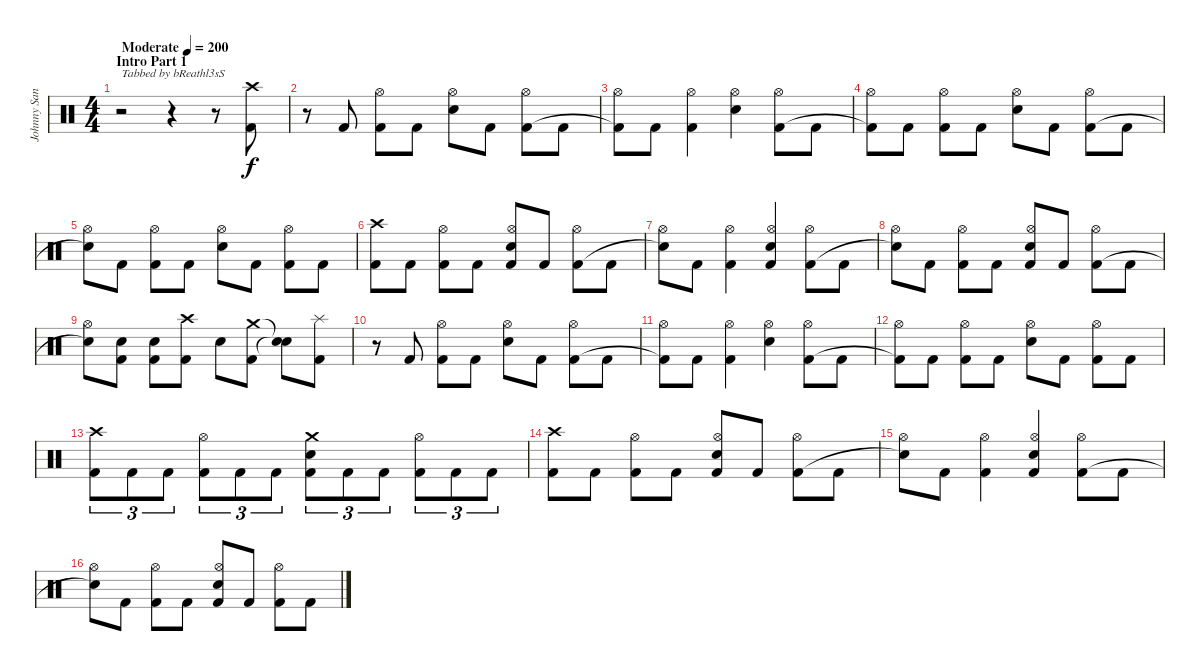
\track ("Johnny Sandin" "Johnny San") {instrument percussion}
\staff {score}
\articulation defaults
\ts (4 4)
\section ("" "Intro Part 1")
\tempo (200 "Moderate")
\clef neutral
\ks c
r.2{txt "Tabbed by bReathl3sS" dy f} r.4 r.8 ("Crash high (hit)" "Kick (hit) 2").8 |
r.8 "Kick (hit) 2".8 ("Hi-Hat (open)" "Kick (hit) 2").8 "Kick (hit) 2".8 ("Hi-Hat (open)" "Snare (hit) 2").8 "Kick (hit) 2".8 ("Hi-Hat (open)" "Kick (hit) 2").8 "Kick (hit) 2".8 |
("Hi-Hat (open)" "Kick (hit) 2"{t}).8 "Kick (hit) 2".8 ("Hi-Hat (open)" "Kick (hit) 2").4 ("Hi-Hat (open)" "Snare (hit) 2").4 ("Hi-Hat (open)" "Kick (hit) 2").8 "Kick (hit) 2".8 |
("Hi-Hat (open)" "Kick (hit) 2"{t}).8 "Kick (hit) 2".8 ("Hi-Hat (open)" "Kick (hit) 2").8 "Kick (hit) 2".8 ("Hi-Hat (open)" "Snare (hit) 2").8 "Kick (hit) 2".8 ("Hi-Hat (open)" "Kick (hit) 2").8 "Kick (hit) 2".8 |
("Hi-Hat (open)" "Snare (hit)"{t}).8 "Kick (hit) 2".8 ("Hi-Hat (open)" "Kick (hit) 2").8 "Kick (hit) 2".8 ("Hi-Hat (open)" "Snare (hit) 2").8 "Kick (hit) 2".8 ("Hi-Hat (open)" "Kick (hit) 2").8 "Kick (hit) 2".8 |
("Crash high (hit)" "Kick (hit) 2").8 "Kick (hit) 2".8 ("Hi-Hat (open)" "Kick (hit) 2").8 "Kick (hit) 2".8 ("Hi-Hat (open)" "Snare (hit) 2" "Kick (hit) 2").8 "Kick (hit) 2".8 ("Hi-Hat (open)" "Kick (hit) 2").8 "Kick (hit) 2".8 |
("Hi-Hat (open)" "Snare (hit)"{t}).8 "Kick (hit) 2".8 ("Hi-Hat (open)" "Kick (hit) 2").4 ("Hi-Hat (open)" "Snare (hit) 2" "Kick (hit) 2").4 ("Hi-Hat (open)" "Kick (hit) 2").8 "Kick (hit) 2".8 |
("Hi-Hat (open)" "Snare (hit)"{t}).8 "Kick (hit) 2".8 ("Hi-Hat (open)" "Kick (hit) 2").8 "Kick (hit) 2".8 ("Hi-Hat (open)" "Snare (hit) 2" "Kick (hit) 2").8 "Kick (hit) 2".8 ("Hi-Hat (open)" "Kick (hit) 2").8 "Kick (hit) 2".8 |
("Hi-Hat (open)" "Snare (hit)"{t}).8 ("Snare (hit) 2" "Kick (hit) 2").8 ("Snare (hit) 2" "Kick (hit) 2").8 ("Crash high (hit)" "Kick (hit) 2").8 "Snare (hit) 2".8 ("Crash medium (hit)" "Kick (hit) 2").8 ("Snare (hit)"{t} "Snare (hit)"{t}).8 ("Splash (hit)" "Kick (hit) 2").8 |
r.8 "Kick (hit) 2".8 ("Hi-Hat (open)" "Kick (hit) 2").8 "Kick (hit) 2".8 ("Hi-Hat (open)" "Snare (hit) 2").8 "Kick (hit) 2".8 ("Hi-Hat (open)" "Kick (hit) 2").8 "Kick (hit) 2".8 |
("Hi-Hat (open)" "Kick (hit) 2"{t}).8 "Kick (hit) 2".8 ("Hi-Hat (open)" "Kick (hit) 2").4 ("Hi-Hat (open)" "Snare (hit) 2").4 ("Hi-Hat (open)" "Kick (hit) 2").8 "Kick (hit) 2".8 |
("Hi-Hat (open)" "Kick (hit) 2"{t}).8 "Kick (hit) 2".8 ("Hi-Hat (open)" "Kick (hit) 2").8 "Kick (hit) 2".8 ("Hi-Hat (open)" "Snare (hit) 2").8 "Kick (hit) 2".8 ("Hi-Hat (open)" "Kick (hit) 2").8 "Kick (hit) 2".8 |
("Crash high (hit)" "Kick (hit) 2").8{tu (3 2)} "Kick (hit) 2".8{tu (3 2)} "Kick (hit) 2".8{tu (3 2)} ("Hi-Hat (open)" "Kick (hit) 2").8{tu (3 2)} "Kick (hit) 2".8{tu (3 2)} "Kick (hit) 2".8{tu (3 2)} ("Crash medium (hit)" "Snare (hit) 2" "Kick (hit) 2").8{tu (3 2)} "Kick (hit) 2".8{tu (3 2)} "Kick (hit) 2".8{tu (3 2)} ("Hi-Hat (open)" "Kick (hit) 2").8{tu (3 2)} "Kick (hit) 2".8{tu (3 2)} "Kick (hit) 2".8{tu (3 2)} |
("Crash high (hit)" "Kick (hit) 2").8 "Kick (hit) 2".8 ("Hi-Hat (open)" "Kick (hit) 2").8 "Kick (hit) 2".8 ("Hi-Hat (open)" "Snare (hit) 2" "Kick (hit) 2").8 "Kick (hit) 2".8 ("Hi-Hat (open)" "Kick (hit) 2").8 "Kick (hit) 2".8 |
("Hi-Hat (open)" "Snare (hit)"{t}).8 "Kick (hit) 2".8 ("Hi-Hat (open)" "Kick (hit) 2").4 ("Hi-Hat (open)" "Snare (hit) 2" "Kick (hit) 2").4 ("Hi-Hat (open)" "Kick (hit) 2").8 "Kick (hit) 2".8 |
("Hi-Hat (open)" "Snare (hit)"{t}).8 "Kick (hit) 2".8 ("Hi-Hat (open)" "Kick (hit) 2").8 "Kick (hit) 2".8 ("Hi-Hat (open)" "Snare (hit) 2" "Kick (hit) 2").8 "Kick (hit) 2".8 ("Hi-Hat (open)" "Kick (hit) 2").8 "Kick (hit) 2".8
